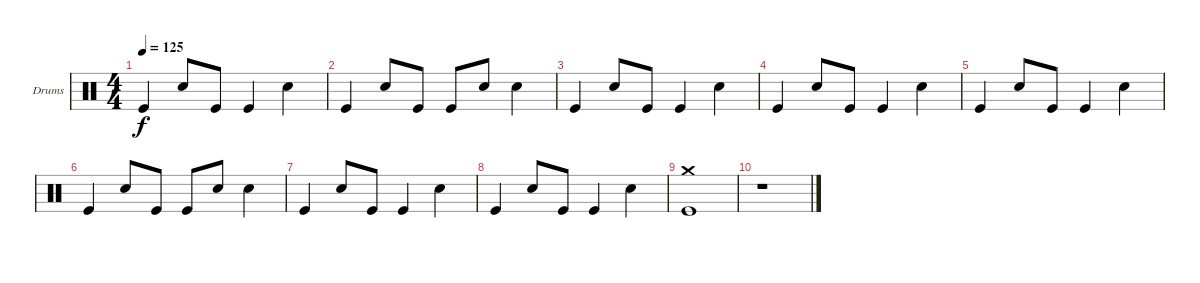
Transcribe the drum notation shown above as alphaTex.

\bracketExtendMode groupsimilarinstruments
\firstSystemTrackNameOrientation horizontal
\otherSystemsTrackNameOrientation horizontal
\track ("batterie" "Drums") {instrument percussion}
\staff {score}
\articulation defaults
\ts (4 4)
\tempo 125
\clef neutral
\ks c "Kick (hit)".4{dy f} "Snare (hit) 2".8 "Kick (hit)".8 "Kick (hit)".4 "Snare (hit) 2".4
|
"Kick (hit)".4 "Snare (hit) 2".8 "Kick (hit)".8 "Kick (hit)".8 "Snare (hit) 2".8 "Snare (hit) 2".4 |
"Kick (hit)".4 "Snare (hit) 2".8 "Kick (hit)".8 "Kick (hit)".4 "Snare (hit) 2".4 |
"Kick (hit)".4 "Snare (hit) 2".8 "Kick (hit)".8 "Kick (hit)".4 "Snare (hit) 2".4 |
"Kick (hit)".4 "Snare (hit) 2".8 "Kick (hit)".8 "Kick (hit)".4 "Snare (hit) 2".4 |
"Kick (hit)".4 "Snare (hit) 2".8 "Kick (hit)".8 "Kick (hit)".8 "Snare (hit) 2".8 "Snare (hit) 2".4 |
"Kick (hit)".4 "Snare (hit) 2".8 "Kick (hit)".8 "Kick (hit)".4 "Snare (hit) 2".4 |
"Kick (hit)".4 "Snare (hit) 2".8 "Kick (hit)".8 "Kick (hit)".4 "Snare (hit) 2".4 |
("Crash medium (hit)" "Kick (hit)").1 |
r.1
